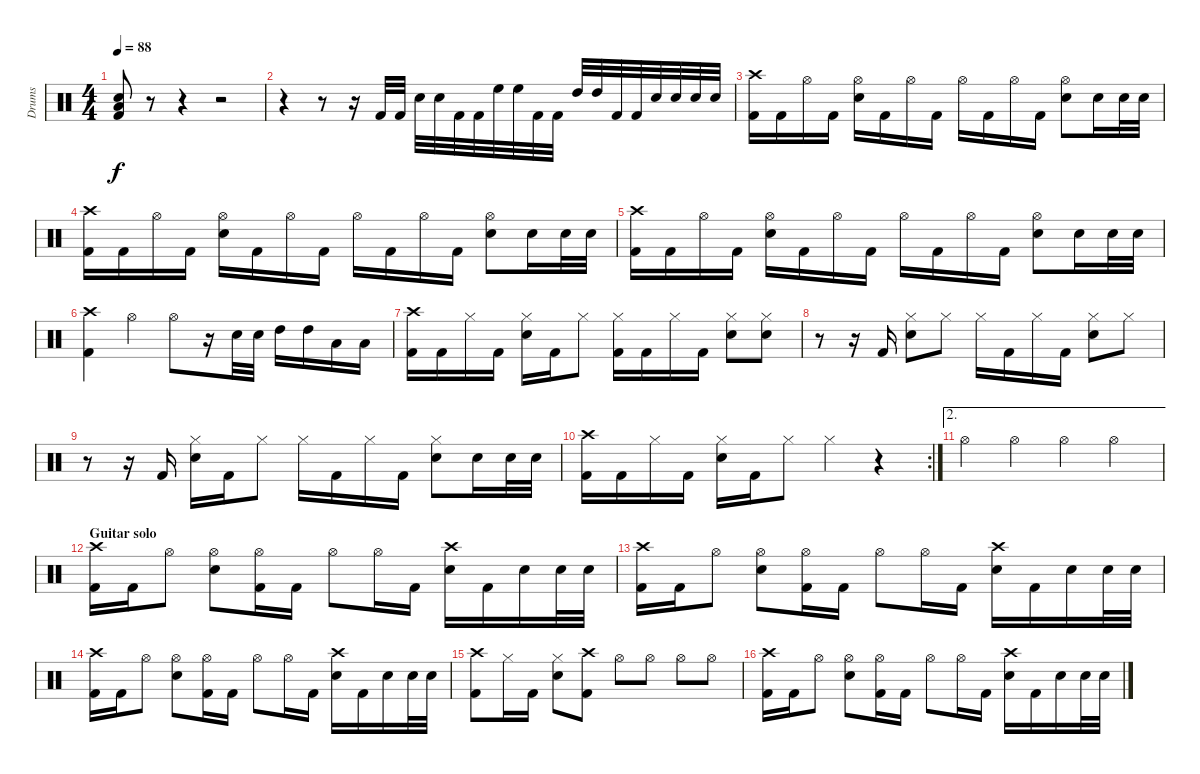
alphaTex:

\track ("Drums" "Drums") {instrument percussion}
\staff {score}
\articulation defaults
\ts (4 4)
\tempo 88
\clef neutral
\ks c
("Low Tom (hit)" "Snare (hit) 2" "Kick (hit) 2").8{dy f} r.8 r.4 r.2 |
r.4 r.8 r.16 "Kick (hit) 2".32 "Kick (hit) 2".32 "Snare (hit) 2".32 "Snare (hit) 2".32 "Kick (hit) 2".32 "Kick (hit) 2".32 "High Floor Tom (hit)".32 "High Floor Tom (hit)".32 "Kick (hit) 2".32 "Kick (hit) 2".32 "High Tom (hit)".32 "High Tom (hit)".32 "Kick (hit) 2".32 "Kick (hit) 2".32 "Snare (hit) 2".32 "Snare (hit) 2".32 "Snare (hit) 2".32 "Snare (hit) 2".32 |
("Crash high (hit)" "Kick (hit) 2").16 "Kick (hit) 2".16 "Hi-Hat (open)".16 "Kick (hit) 2".16 ("Hi-Hat (open)" "Snare (hit) 2").16 "Kick (hit) 2".16 "Hi-Hat (open)".16 "Kick (hit) 2".16 "Hi-Hat (open)".16 "Kick (hit) 2".16 "Hi-Hat (open)".16 "Kick (hit) 2".16 ("Hi-Hat (open)" "Snare (hit) 2").8 "Snare (hit) 2".16 "Snare (hit) 2".32 "Snare (hit) 2".32 |
("Crash high (hit)" "Kick (hit) 2").16 "Kick (hit) 2".16 "Hi-Hat (open)".16 "Kick (hit) 2".16 ("Hi-Hat (open)" "Snare (hit) 2").16 "Kick (hit) 2".16 "Hi-Hat (open)".16 "Kick (hit) 2".16 "Hi-Hat (open)".16 "Kick (hit) 2".16 "Hi-Hat (open)".16 "Kick (hit) 2".16 ("Hi-Hat (open)" "Snare (hit) 2").8 "Snare (hit) 2".16 "Snare (hit) 2".32 "Snare (hit) 2".32 |
("Crash high (hit)" "Kick (hit) 2").16 "Kick (hit) 2".16 "Hi-Hat (open)".16 "Kick (hit) 2".16 ("Hi-Hat (open)" "Snare (hit) 2").16 "Kick (hit) 2".16 "Hi-Hat (open)".16 "Kick (hit) 2".16 "Hi-Hat (open)".16 "Kick (hit) 2".16 "Hi-Hat (open)".16 "Kick (hit) 2".16 ("Hi-Hat (open)" "Snare (hit) 2").8 "Snare (hit) 2".16 "Snare (hit) 2".32 "Snare (hit) 2".32 |
("Crash high (hit)" "Kick (hit) 2").4 "Hi-Hat (open)".4 "Hi-Hat (open)".8 r.16 "Snare (hit) 2".32 "Snare (hit) 2".32 "High Tom (hit)".16 "High Tom (hit)".16 "Low Tom (hit)".16 "Low Tom (hit)".16 |
("Crash high (hit)" "Kick (hit) 2").16 "Kick (hit) 2".16 "Hi-Hat (closed)".16 "Kick (hit) 2".16 ("Hi-Hat (closed)" "Snare (hit) 2").16 "Kick (hit) 2".16 "Hi-Hat (closed)".8 ("Hi-Hat (closed)" "Kick (hit) 2").16 "Kick (hit) 2".16 "Hi-Hat (closed)".16 "Kick (hit) 2".16 ("Hi-Hat (closed)" "Snare (hit) 2").8 ("Hi-Hat (closed)" "Snare (hit) 2").8 |
r.8 r.16 "Kick (hit) 2".16 ("Hi-Hat (closed)" "Snare (hit) 2").8 "Hi-Hat (closed)".8 "Hi-Hat (closed)".16 "Kick (hit) 2".16 "Hi-Hat (closed)".16 "Kick (hit) 2".16 ("Hi-Hat (closed)" "Snare (hit) 2").8 "Hi-Hat (closed)".8 |
r.8 r.16 "Kick (hit) 2".16 ("Hi-Hat (closed)" "Snare (hit) 2").16 "Kick (hit) 2".16 "Hi-Hat (closed)".8 "Hi-Hat (closed)".16 "Kick (hit) 2".16 "Hi-Hat (closed)".16 "Kick (hit) 2".16 ("Hi-Hat (closed)" "Snare (hit) 2").8 "Snare (hit) 2".16 "Snare (hit) 2".32 "Snare (hit) 2".32 |
\rc 2
("Crash high (hit)" "Kick (hit) 2").16 "Kick (hit) 2".16 "Hi-Hat (closed)".16 "Kick (hit) 2".16 ("Hi-Hat (closed)" "Snare (hit) 2").16 "Kick (hit) 2".16 "Hi-Hat (closed)".8 "Hi-Hat (closed)".4 r.4 |
\ae 2 "Hi-Hat (open)".4 "Hi-Hat (open)".4 "Hi-Hat (open)".4 "Hi-Hat (open)".4
|
\section ("" "Guitar solo")
("Crash high (hit)" "Kick (hit) 2").16 "Kick (hit) 2".16 "Hi-Hat (open)".8 ("Hi-Hat (open)" "Snare (hit) 2").8 ("Hi-Hat (open)" "Kick (hit) 2").16 "Kick (hit) 2".16 "Hi-Hat (open)".8 "Hi-Hat (open)".16 "Kick (hit) 2".16 ("Crash high (hit)" "Snare (hit) 2").16 "Kick (hit) 2".16 "Snare (hit) 2".16 "Snare (hit) 2".32 "Snare (hit) 2".32 |
("Crash high (hit)" "Kick (hit) 2").16 "Kick (hit) 2".16 "Hi-Hat (open)".8 ("Hi-Hat (open)" "Snare (hit) 2").8 ("Hi-Hat (open)" "Kick (hit) 2").16 "Kick (hit) 2".16 "Hi-Hat (open)".8 "Hi-Hat (open)".16 "Kick (hit) 2".16 ("Crash high (hit)" "Snare (hit) 2").16 "Kick (hit) 2".16 "Snare (hit) 2".16 "Snare (hit) 2".32 "Snare (hit) 2".32 |
("Crash high (hit)" "Kick (hit) 2").16 "Kick (hit) 2".16 "Hi-Hat (open)".8 ("Hi-Hat (open)" "Snare (hit) 2").8 ("Hi-Hat (open)" "Kick (hit) 2").16 "Kick (hit) 2".16 "Hi-Hat (open)".8 "Hi-Hat (open)".16 "Kick (hit) 2".16 ("Crash high (hit)" "Snare (hit) 2").16 "Kick (hit) 2".16 "Snare (hit) 2".16 "Snare (hit) 2".32 "Snare (hit) 2".32 |
("Crash high (hit)" "Kick (hit) 2").8 "Hi-Hat (closed)".16 "Kick (hit) 2".16 ("Hi-Hat (closed)" "Snare (hit) 2").8 ("Crash high (hit)" "Kick (hit) 2").8 "Hi-Hat (open)".8 "Hi-Hat (open)".8 "Hi-Hat (open)".8 "Hi-Hat (open)".8 |
("Crash high (hit)" "Kick (hit) 2").16 "Kick (hit) 2".16 "Hi-Hat (open)".8 ("Hi-Hat (open)" "Snare (hit) 2").8 ("Hi-Hat (open)" "Kick (hit) 2").16 "Kick (hit) 2".16 "Hi-Hat (open)".8 "Hi-Hat (open)".16 "Kick (hit) 2".16 ("Crash high (hit)" "Snare (hit) 2").16 "Kick (hit) 2".16 "Snare (hit) 2".16 "Snare (hit) 2".32 "Snare (hit) 2".32
